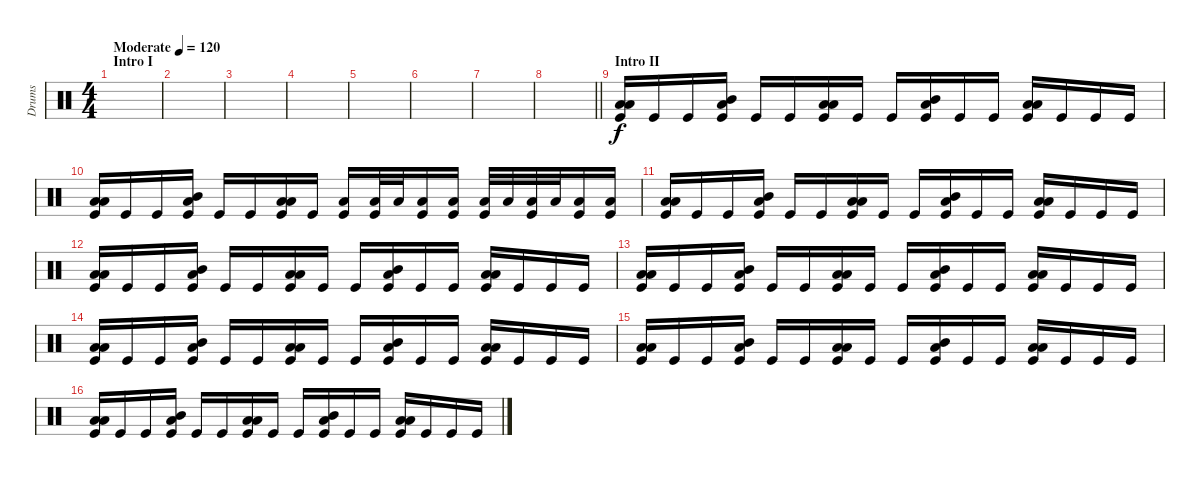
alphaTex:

\track ("Drums" "Drums") {instrument percussion}
\staff {score}
\articulation defaults
\ts (4 4)
\section ("" "Intro I")
\tempo (120 "Moderate")
\clef neutral
\ks c
|
|
|
|
|
|
|
\barLineRight lightlight
|
\section ("" "Intro II")
("Low Tom (hit)" "Low Floor Tom (hit)" "Kick (hit)").16 "Kick (hit)".16 "Kick (hit)".16 ("Mid Tom (hit)" "Low Floor Tom (hit)" "Kick (hit)").16 "Kick (hit)".16 "Kick (hit)".16 ("Low Tom (hit)" "Low Floor Tom (hit)" "Kick (hit)").16 "Kick (hit)".16 "Kick (hit)".16 ("Mid Tom (hit)" "Low Floor Tom (hit)" "Kick (hit)").16 "Kick (hit)".16 "Kick (hit)".16 ("Low Tom (hit)" "Low Floor Tom (hit)" "Kick (hit)").16 "Kick (hit)".16 "Kick (hit)".16 "Kick (hit)".16 |
("Low Tom (hit)" "Low Floor Tom (hit)" "Kick (hit)").16 "Kick (hit)".16 "Kick (hit)".16 ("Mid Tom (hit)" "Low Floor Tom (hit)" "Kick (hit)").16 "Kick (hit)".16 "Kick (hit)".16 ("Low Tom (hit)" "Low Floor Tom (hit)" "Kick (hit)").16 "Kick (hit)".16 ("Low Tom (hit)" "Kick (hit)").16 ("Low Tom (hit)" "Kick (hit)").32 "Low Tom (hit)".32 ("Low Tom (hit)" "Kick (hit)").16 ("Low Tom (hit)" "Kick (hit)").16 ("Low Floor Tom (hit)" "Kick (hit)").32 "Low Floor Tom (hit)".32 ("Low Floor Tom (hit)" "Kick (hit)").32 "Low Floor Tom (hit)".32 ("Low Floor Tom (hit)" "Kick (hit)").16 ("Low Floor Tom (hit)" "Kick (hit)").16 |
("Low Tom (hit)" "Low Floor Tom (hit)" "Kick (hit)").16 "Kick (hit)".16 "Kick (hit)".16 ("Mid Tom (hit)" "Low Floor Tom (hit)" "Kick (hit)").16 "Kick (hit)".16 "Kick (hit)".16 ("Low Tom (hit)" "Low Floor Tom (hit)" "Kick (hit)").16 "Kick (hit)".16 "Kick (hit)".16 ("Mid Tom (hit)" "Low Floor Tom (hit)" "Kick (hit)").16 "Kick (hit)".16 "Kick (hit)".16 ("Low Tom (hit)" "Low Floor Tom (hit)" "Kick (hit)").16 "Kick (hit)".16 "Kick (hit)".16 "Kick (hit)".16 |
("Low Tom (hit)" "Low Floor Tom (hit)" "Kick (hit)").16 "Kick (hit)".16 "Kick (hit)".16 ("Mid Tom (hit)" "Low Floor Tom (hit)" "Kick (hit)").16 "Kick (hit)".16 "Kick (hit)".16 ("Low Tom (hit)" "Low Floor Tom (hit)" "Kick (hit)").16 "Kick (hit)".16 "Kick (hit)".16 ("Mid Tom (hit)" "Low Floor Tom (hit)" "Kick (hit)").16 "Kick (hit)".16 "Kick (hit)".16 ("Low Tom (hit)" "Low Floor Tom (hit)" "Kick (hit)").16 "Kick (hit)".16 "Kick (hit)".16 "Kick (hit)".16 |
("Low Tom (hit)" "Low Floor Tom (hit)" "Kick (hit)").16 "Kick (hit)".16 "Kick (hit)".16 ("Mid Tom (hit)" "Low Floor Tom (hit)" "Kick (hit)").16 "Kick (hit)".16 "Kick (hit)".16 ("Low Tom (hit)" "Low Floor Tom (hit)" "Kick (hit)").16 "Kick (hit)".16 "Kick (hit)".16 ("Mid Tom (hit)" "Low Floor Tom (hit)" "Kick (hit)").16 "Kick (hit)".16 "Kick (hit)".16 ("Low Tom (hit)" "Low Floor Tom (hit)" "Kick (hit)").16 "Kick (hit)".16 "Kick (hit)".16 "Kick (hit)".16 |
("Low Tom (hit)" "Low Floor Tom (hit)" "Kick (hit)").16 "Kick (hit)".16 "Kick (hit)".16 ("Mid Tom (hit)" "Low Floor Tom (hit)" "Kick (hit)").16 "Kick (hit)".16 "Kick (hit)".16 ("Low Tom (hit)" "Low Floor Tom (hit)" "Kick (hit)").16 "Kick (hit)".16 "Kick (hit)".16 ("Mid Tom (hit)" "Low Floor Tom (hit)" "Kick (hit)").16 "Kick (hit)".16 "Kick (hit)".16 ("Low Tom (hit)" "Low Floor Tom (hit)" "Kick (hit)").16 "Kick (hit)".16 "Kick (hit)".16 "Kick (hit)".16 |
("Low Tom (hit)" "Low Floor Tom (hit)" "Kick (hit)").16 "Kick (hit)".16 "Kick (hit)".16 ("Mid Tom (hit)" "Low Floor Tom (hit)" "Kick (hit)").16 "Kick (hit)".16 "Kick (hit)".16 ("Low Tom (hit)" "Low Floor Tom (hit)" "Kick (hit)").16 "Kick (hit)".16 "Kick (hit)".16 ("Mid Tom (hit)" "Low Floor Tom (hit)" "Kick (hit)").16 "Kick (hit)".16 "Kick (hit)".16 ("Low Tom (hit)" "Low Floor Tom (hit)" "Kick (hit)").16 "Kick (hit)".16 "Kick (hit)".16 "Kick (hit)".16 |
("Low Tom (hit)" "Low Floor Tom (hit)" "Kick (hit)").16 "Kick (hit)".16 "Kick (hit)".16 ("Mid Tom (hit)" "Low Floor Tom (hit)" "Kick (hit)").16 "Kick (hit)".16 "Kick (hit)".16 ("Low Tom (hit)" "Low Floor Tom (hit)" "Kick (hit)").16 "Kick (hit)".16 "Kick (hit)".16 ("Mid Tom (hit)" "Low Floor Tom (hit)" "Kick (hit)").16 "Kick (hit)".16 "Kick (hit)".16 ("Low Tom (hit)" "Low Floor Tom (hit)" "Kick (hit)").16 "Kick (hit)".16 "Kick (hit)".16 "Kick (hit)".16
